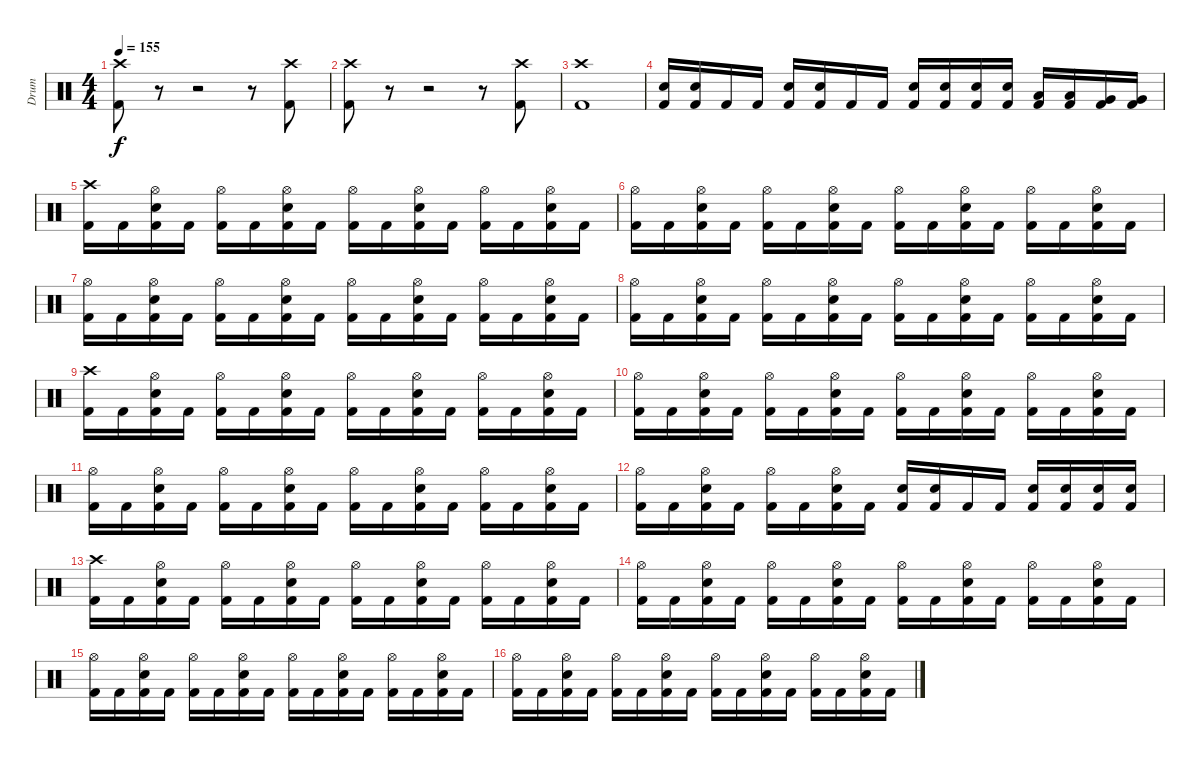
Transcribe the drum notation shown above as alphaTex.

\track ("Drum" "Drum") {instrument percussion}
\staff {score}
\articulation defaults
\ts (4 4)
\tempo 155
\clef neutral
\ks c
("Crash high (hit)" "Kick (hit) 2").8{dy f} r.8 r.2 r.8 ("Crash high (hit)" "Kick (hit) 2").8 |
("Crash high (hit)" "Kick (hit) 2").8 r.8 r.2 r.8 ("Crash high (hit)" "Kick (hit) 2").8 |
("Crash high (hit)" "Kick (hit) 2").1 |
("Electric Snare (hit)" "Kick (hit) 2").16 ("Electric Snare (hit)" "Kick (hit) 2").16 "Kick (hit) 2".16 "Kick (hit) 2".16 ("Electric Snare (hit)" "Kick (hit) 2").16 ("Electric Snare (hit)" "Kick (hit) 2").16 "Kick (hit) 2".16 "Kick (hit) 2".16 ("Electric Snare (hit)" "Kick (hit) 2").16 ("Electric Snare (hit)" "Kick (hit) 2").16 ("Electric Snare (hit)" "Kick (hit) 2").16 ("Electric Snare (hit)" "Kick (hit) 2").16 ("Low Tom (hit)" "Kick (hit) 2").16 ("Low Tom (hit)" "Kick (hit) 2").16 ("Very Low Tom (hit)" "Kick (hit) 2").16 ("Very Low Tom (hit)" "Kick (hit) 2").16 |
("Crash high (hit)" "Kick (hit) 2").16 "Kick (hit) 2".16 ("Hi-Hat (open)" "Electric Snare (hit)" "Kick (hit) 2").16 "Kick (hit) 2".16 ("Hi-Hat (open)" "Kick (hit) 2").16 "Kick (hit) 2".16 ("Hi-Hat (open)" "Electric Snare (hit)" "Kick (hit) 2").16 "Kick (hit) 2".16 ("Hi-Hat (open)" "Kick (hit) 2").16 "Kick (hit) 2".16 ("Hi-Hat (open)" "Electric Snare (hit)" "Kick (hit) 2").16 "Kick (hit) 2".16 ("Hi-Hat (open)" "Kick (hit) 2").16 "Kick (hit) 2".16 ("Hi-Hat (open)" "Electric Snare (hit)" "Kick (hit) 2").16 "Kick (hit) 2".16 |
("Hi-Hat (open)" "Kick (hit) 2").16 "Kick (hit) 2".16 ("Hi-Hat (open)" "Electric Snare (hit)" "Kick (hit) 2").16 "Kick (hit) 2".16 ("Hi-Hat (open)" "Kick (hit) 2").16 "Kick (hit) 2".16 ("Hi-Hat (open)" "Electric Snare (hit)" "Kick (hit) 2").16 "Kick (hit) 2".16 ("Hi-Hat (open)" "Kick (hit) 2").16 "Kick (hit) 2".16 ("Hi-Hat (open)" "Electric Snare (hit)" "Kick (hit) 2").16 "Kick (hit) 2".16 ("Hi-Hat (open)" "Kick (hit) 2").16 "Kick (hit) 2".16 ("Hi-Hat (open)" "Electric Snare (hit)" "Kick (hit) 2").16 "Kick (hit) 2".16 |
("Hi-Hat (open)" "Kick (hit) 2").16 "Kick (hit) 2".16 ("Hi-Hat (open)" "Electric Snare (hit)" "Kick (hit) 2").16 "Kick (hit) 2".16 ("Hi-Hat (open)" "Kick (hit) 2").16 "Kick (hit) 2".16 ("Hi-Hat (open)" "Electric Snare (hit)" "Kick (hit) 2").16 "Kick (hit) 2".16 ("Hi-Hat (open)" "Kick (hit) 2").16 "Kick (hit) 2".16 ("Hi-Hat (open)" "Electric Snare (hit)" "Kick (hit) 2").16 "Kick (hit) 2".16 ("Hi-Hat (open)" "Kick (hit) 2").16 "Kick (hit) 2".16 ("Hi-Hat (open)" "Electric Snare (hit)" "Kick (hit) 2").16 "Kick (hit) 2".16 |
("Hi-Hat (open)" "Kick (hit) 2").16 "Kick (hit) 2".16 ("Hi-Hat (open)" "Electric Snare (hit)" "Kick (hit) 2").16 "Kick (hit) 2".16 ("Hi-Hat (open)" "Kick (hit) 2").16 "Kick (hit) 2".16 ("Hi-Hat (open)" "Electric Snare (hit)" "Kick (hit) 2").16 "Kick (hit) 2".16 ("Hi-Hat (open)" "Kick (hit) 2").16 "Kick (hit) 2".16 ("Hi-Hat (open)" "Electric Snare (hit)" "Kick (hit) 2").16 "Kick (hit) 2".16 ("Hi-Hat (open)" "Kick (hit) 2").16 "Kick (hit) 2".16 ("Hi-Hat (open)" "Electric Snare (hit)" "Kick (hit) 2").16 "Kick (hit) 2".16 |
("Crash high (hit)" "Kick (hit) 2").16 "Kick (hit) 2".16 ("Hi-Hat (open)" "Electric Snare (hit)" "Kick (hit) 2").16 "Kick (hit) 2".16 ("Hi-Hat (open)" "Kick (hit) 2").16 "Kick (hit) 2".16 ("Hi-Hat (open)" "Electric Snare (hit)" "Kick (hit) 2").16 "Kick (hit) 2".16 ("Hi-Hat (open)" "Kick (hit) 2").16 "Kick (hit) 2".16 ("Hi-Hat (open)" "Electric Snare (hit)" "Kick (hit) 2").16 "Kick (hit) 2".16 ("Hi-Hat (open)" "Kick (hit) 2").16 "Kick (hit) 2".16 ("Hi-Hat (open)" "Electric Snare (hit)" "Kick (hit) 2").16 "Kick (hit) 2".16 |
("Hi-Hat (open)" "Kick (hit) 2").16 "Kick (hit) 2".16 ("Hi-Hat (open)" "Electric Snare (hit)" "Kick (hit) 2").16 "Kick (hit) 2".16 ("Hi-Hat (open)" "Kick (hit) 2").16 "Kick (hit) 2".16 ("Hi-Hat (open)" "Electric Snare (hit)" "Kick (hit) 2").16 "Kick (hit) 2".16 ("Hi-Hat (open)" "Kick (hit) 2").16 "Kick (hit) 2".16 ("Hi-Hat (open)" "Electric Snare (hit)" "Kick (hit) 2").16 "Kick (hit) 2".16 ("Hi-Hat (open)" "Kick (hit) 2").16 "Kick (hit) 2".16 ("Hi-Hat (open)" "Electric Snare (hit)" "Kick (hit) 2").16 "Kick (hit) 2".16 |
("Hi-Hat (open)" "Kick (hit) 2").16 "Kick (hit) 2".16 ("Hi-Hat (open)" "Electric Snare (hit)" "Kick (hit) 2").16 "Kick (hit) 2".16 ("Hi-Hat (open)" "Kick (hit) 2").16 "Kick (hit) 2".16 ("Hi-Hat (open)" "Electric Snare (hit)" "Kick (hit) 2").16 "Kick (hit) 2".16 ("Hi-Hat (open)" "Kick (hit) 2").16 "Kick (hit) 2".16 ("Hi-Hat (open)" "Electric Snare (hit)" "Kick (hit) 2").16 "Kick (hit) 2".16 ("Hi-Hat (open)" "Kick (hit) 2").16 "Kick (hit) 2".16 ("Hi-Hat (open)" "Electric Snare (hit)" "Kick (hit) 2").16 "Kick (hit) 2".16 |
("Hi-Hat (open)" "Kick (hit) 2").16 "Kick (hit) 2".16 ("Hi-Hat (open)" "Electric Snare (hit)" "Kick (hit) 2").16 "Kick (hit) 2".16 ("Hi-Hat (open)" "Kick (hit) 2").16 "Kick (hit) 2".16 ("Hi-Hat (open)" "Electric Snare (hit)" "Kick (hit) 2").16 "Kick (hit) 2".16 ("Electric Snare (hit)" "Kick (hit) 2").16 ("Electric Snare (hit)" "Kick (hit) 2").16 "Kick (hit) 2".16 "Kick (hit) 2".16 ("Electric Snare (hit)" "Kick (hit) 2").16 ("Electric Snare (hit)" "Kick (hit) 2").16 ("Electric Snare (hit)" "Kick (hit) 2").16 ("Electric Snare (hit)" "Kick (hit) 2").16 |
("Crash high (hit)" "Kick (hit) 2").16 "Kick (hit) 2".16 ("Hi-Hat (open)" "Electric Snare (hit)" "Kick (hit) 2").16 "Kick (hit) 2".16 ("Hi-Hat (open)" "Kick (hit) 2").16 "Kick (hit) 2".16 ("Hi-Hat (open)" "Electric Snare (hit)" "Kick (hit) 2").16 "Kick (hit) 2".16 ("Hi-Hat (open)" "Kick (hit) 2").16 "Kick (hit) 2".16 ("Hi-Hat (open)" "Electric Snare (hit)" "Kick (hit) 2").16 "Kick (hit) 2".16 ("Hi-Hat (open)" "Kick (hit) 2").16 "Kick (hit) 2".16 ("Hi-Hat (open)" "Electric Snare (hit)" "Kick (hit) 2").16 "Kick (hit) 2".16 |
("Hi-Hat (open)" "Kick (hit) 2").16 "Kick (hit) 2".16 ("Hi-Hat (open)" "Electric Snare (hit)" "Kick (hit) 2").16 "Kick (hit) 2".16 ("Hi-Hat (open)" "Kick (hit) 2").16 "Kick (hit) 2".16 ("Hi-Hat (open)" "Electric Snare (hit)" "Kick (hit) 2").16 "Kick (hit) 2".16 ("Hi-Hat (open)" "Kick (hit) 2").16 "Kick (hit) 2".16 ("Hi-Hat (open)" "Electric Snare (hit)" "Kick (hit) 2").16 "Kick (hit) 2".16 ("Hi-Hat (open)" "Kick (hit) 2").16 "Kick (hit) 2".16 ("Hi-Hat (open)" "Electric Snare (hit)" "Kick (hit) 2").16 "Kick (hit) 2".16 |
("Hi-Hat (open)" "Kick (hit) 2").16 "Kick (hit) 2".16 ("Hi-Hat (open)" "Electric Snare (hit)" "Kick (hit) 2").16 "Kick (hit) 2".16 ("Hi-Hat (open)" "Kick (hit) 2").16 "Kick (hit) 2".16 ("Hi-Hat (open)" "Electric Snare (hit)" "Kick (hit) 2").16 "Kick (hit) 2".16 ("Hi-Hat (open)" "Kick (hit) 2").16 "Kick (hit) 2".16 ("Hi-Hat (open)" "Electric Snare (hit)" "Kick (hit) 2").16 "Kick (hit) 2".16 ("Hi-Hat (open)" "Kick (hit) 2").16 "Kick (hit) 2".16 ("Hi-Hat (open)" "Electric Snare (hit)" "Kick (hit) 2").16 "Kick (hit) 2".16 |
("Hi-Hat (open)" "Kick (hit) 2").16 "Kick (hit) 2".16 ("Hi-Hat (open)" "Electric Snare (hit)" "Kick (hit) 2").16 "Kick (hit) 2".16 ("Hi-Hat (open)" "Kick (hit) 2").16 "Kick (hit) 2".16 ("Hi-Hat (open)" "Electric Snare (hit)" "Kick (hit) 2").16 "Kick (hit) 2".16 ("Hi-Hat (open)" "Kick (hit) 2").16 "Kick (hit) 2".16 ("Hi-Hat (open)" "Electric Snare (hit)" "Kick (hit) 2").16 "Kick (hit) 2".16 ("Hi-Hat (open)" "Kick (hit) 2").16 "Kick (hit) 2".16 ("Hi-Hat (open)" "Electric Snare (hit)" "Kick (hit) 2").16 "Kick (hit) 2".16
